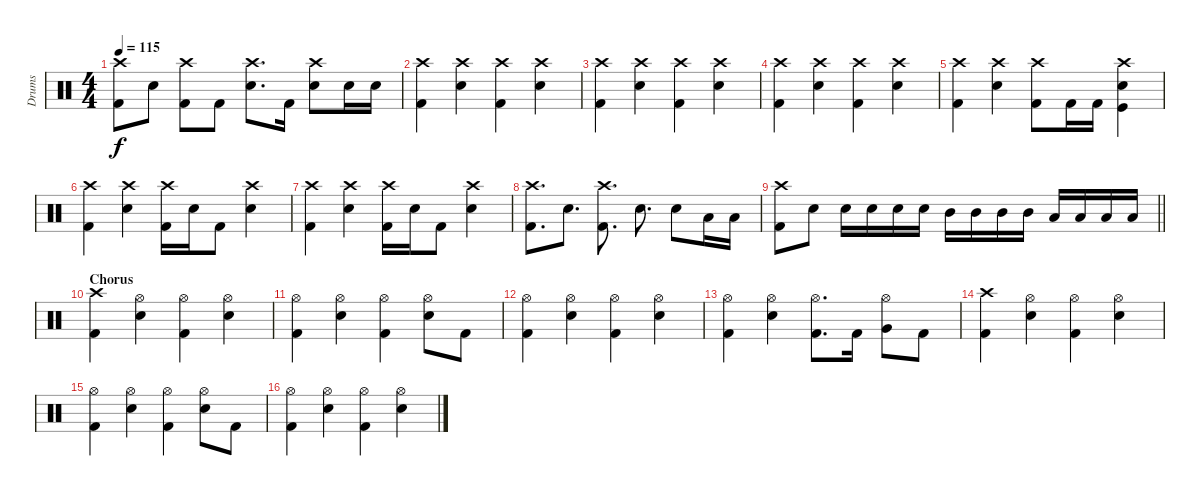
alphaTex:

\track ("Drums" "Drums") {instrument percussion}
\staff {score}
\articulation defaults
\ts (4 4)
\tempo 115
\clef neutral
\ks c
("Crash high (hit)" "Kick (hit) 2").8{dy f} "Snare (hit) 2".8 ("Crash high (hit)" "Kick (hit) 2").8 "Kick (hit) 2".8 ("Crash high (hit)" "Snare (hit) 2").8{d} "Kick (hit) 2".16 ("Crash high (hit)" "Snare (hit) 2").8 "Snare (hit) 2".16 "Snare (hit) 2".16 |
("Crash high (hit)" "Kick (hit) 2").4 ("Crash high (hit)" "Snare (hit) 2").4 ("Crash high (hit)" "Kick (hit) 2").4 ("Crash high (hit)" "Snare (hit) 2").4 |
("Crash high (hit)" "Kick (hit) 2").4 ("Crash high (hit)" "Snare (hit) 2").4 ("Crash high (hit)" "Kick (hit) 2").4 ("Crash high (hit)" "Snare (hit) 2").4 |
("Crash high (hit)" "Kick (hit) 2").4 ("Crash high (hit)" "Snare (hit) 2").4 ("Crash high (hit)" "Kick (hit) 2").4 ("Crash high (hit)" "Snare (hit) 2").4 |
("Crash high (hit)" "Kick (hit) 2").4 ("Crash high (hit)" "Snare (hit) 2").4 ("Crash high (hit)" "Kick (hit) 2").8 "Kick (hit) 2".16 "Kick (hit) 2".16 ("Crash high (hit)" "Kick (hit)" "Snare (hit) 2").4 |
("Crash high (hit)" "Kick (hit) 2").4 ("Crash high (hit)" "Snare (hit) 2").4 ("Crash high (hit)" "Kick (hit) 2").16 "Snare (hit) 2".16 "Kick (hit) 2".8 ("Crash high (hit)" "Snare (hit) 2").4 |
("Crash high (hit)" "Kick (hit) 2").4 ("Crash high (hit)" "Snare (hit) 2").4 ("Crash high (hit)" "Kick (hit) 2").16 "Snare (hit) 2".16 "Kick (hit) 2".8 ("Crash high (hit)" "Snare (hit) 2").4 |
("Crash high (hit)" "Kick (hit) 2").8{d} "Snare (hit) 2".8{d} ("Crash high (hit)" "Kick (hit) 2").8{d} "Snare (hit) 2".8{d} "Snare (hit) 2".8 "Low Tom (hit)".16 "Low Tom (hit)".16 |
\barLineRight lightlight
("Crash high (hit)" "Kick (hit) 2").8 "Snare (hit) 2".8 "Snare (hit) 2".16 "Snare (hit) 2".16 "Snare (hit) 2".16 "Snare (hit) 2".16 "Mid Tom (hit)".16 "Mid Tom (hit)".16 "Mid Tom (hit)".16 "Mid Tom (hit)".16 "Low Tom (hit)".16 "Low Tom (hit)".16 "Low Tom (hit)".16 "Low Tom (hit)".16 |
\section ("" "Chorus")
("Crash high (hit)" "Kick (hit) 2").4 ("Hi-Hat (open)" "Snare (hit) 2").4 ("Hi-Hat (open)" "Kick (hit) 2").4 ("Hi-Hat (open)" "Snare (hit) 2").4 |
("Hi-Hat (open)" "Kick (hit) 2").4 ("Hi-Hat (open)" "Snare (hit) 2").4 ("Hi-Hat (open)" "Kick (hit) 2").4 ("Hi-Hat (open)" "Snare (hit) 2").8 "Kick (hit) 2".8 |
("Hi-Hat (open)" "Kick (hit) 2").4 ("Hi-Hat (open)" "Snare (hit) 2").4 ("Hi-Hat (open)" "Kick (hit) 2").4 ("Hi-Hat (open)" "Snare (hit) 2").4 |
("Hi-Hat (open)" "Kick (hit) 2").4 ("Hi-Hat (open)" "Snare (hit) 2").4 ("Hi-Hat (open)" "Kick (hit) 2").8{d} "Kick (hit) 2".16 ("Hi-Hat (open)" "Very Low Tom (hit)").8 "Kick (hit) 2".8 |
("Crash high (hit)" "Kick (hit) 2").4 ("Hi-Hat (open)" "Snare (hit) 2").4 ("Hi-Hat (open)" "Kick (hit) 2").4 ("Hi-Hat (open)" "Snare (hit) 2").4 |
("Hi-Hat (open)" "Kick (hit) 2").4 ("Hi-Hat (open)" "Snare (hit) 2").4 ("Hi-Hat (open)" "Kick (hit) 2").4 ("Hi-Hat (open)" "Snare (hit) 2").8 "Kick (hit) 2".8 |
("Hi-Hat (open)" "Kick (hit) 2").4 ("Hi-Hat (open)" "Snare (hit) 2").4 ("Hi-Hat (open)" "Kick (hit) 2").4 ("Hi-Hat (open)" "Snare (hit) 2").4
